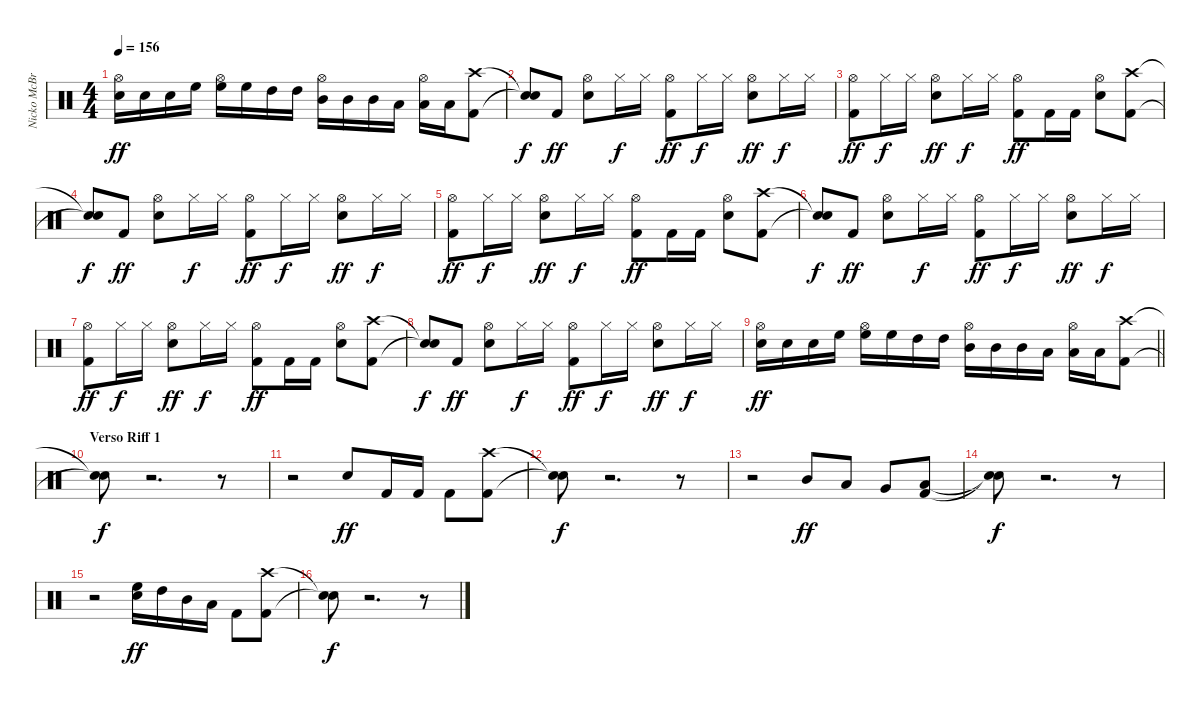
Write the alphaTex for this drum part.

\track ("Nicko McBrain" "Nicko McBr") {instrument percussion}
\staff {score}
\articulation defaults
\ts (4 4)
\tempo 156
\clef neutral
\ks c
("Snare (hit) 2" "Hi-Hat (open)").16{dy ff} "Snare (hit) 2".16 "Snare (hit) 2".16 "High Floor Tom (hit)".16 ("Hi-Hat (open)" "High Floor Tom (hit)").16 "High Floor Tom (hit)".16 "High Tom (hit)".16 "High Tom (hit)".16 ("Hi-Hat (open)" "Mid Tom (hit)").16 "Mid Tom (hit)".16 "Mid Tom (hit)".16 "Low Tom (hit)".16 ("Low Tom (hit)" "Hi-Hat (open)").16 "Low Tom (hit)".16 ("Kick (hit) 2" "Crash high (hit)").8 |
("Snare (hit)"{t} "Snare (hit)"{t}).8{dy f} "Kick (hit) 2".8{dy ff} ("Snare (hit) 2" "Hi-Hat (open)").8 "Hi-Hat (closed)".16{dy f} "Hi-Hat (closed)".16 ("Kick (hit) 2" "Hi-Hat (open)").8{dy ff} "Hi-Hat (closed)".16{dy f} "Hi-Hat (closed)".16 ("Snare (hit) 2" "Hi-Hat (open)").8{dy ff} "Hi-Hat (closed)".16{dy f} "Hi-Hat (closed)".16 |
("Kick (hit) 2" "Hi-Hat (open)").8{dy ff} "Hi-Hat (closed)".16{dy f} "Hi-Hat (closed)".16 ("Snare (hit) 2" "Hi-Hat (open)").8{dy ff} "Hi-Hat (closed)".16{dy f} "Hi-Hat (closed)".16 ("Kick (hit) 2" "Hi-Hat (open)").8{dy ff} "Kick (hit) 2".16 "Kick (hit) 2".16 ("Snare (hit) 2" "Hi-Hat (open)").8 ("Kick (hit) 2" "Crash high (hit)").8 |
("Snare (hit)"{t} "Snare (hit)"{t}).8{dy f} "Kick (hit) 2".8{dy ff} ("Snare (hit) 2" "Hi-Hat (open)").8 "Hi-Hat (closed)".16{dy f} "Hi-Hat (closed)".16 ("Kick (hit) 2" "Hi-Hat (open)").8{dy ff} "Hi-Hat (closed)".16{dy f} "Hi-Hat (closed)".16 ("Snare (hit) 2" "Hi-Hat (open)").8{dy ff} "Hi-Hat (closed)".16{dy f} "Hi-Hat (closed)".16 |
("Kick (hit) 2" "Hi-Hat (open)").8{dy ff} "Hi-Hat (closed)".16{dy f} "Hi-Hat (closed)".16 ("Snare (hit) 2" "Hi-Hat (open)").8{dy ff} "Hi-Hat (closed)".16{dy f} "Hi-Hat (closed)".16 ("Kick (hit) 2" "Hi-Hat (open)").8{dy ff} "Kick (hit) 2".16 "Kick (hit) 2".16 ("Snare (hit) 2" "Hi-Hat (open)").8 ("Kick (hit) 2" "Crash high (hit)").8 |
("Snare (hit)"{t} "Snare (hit)"{t}).8{dy f} "Kick (hit) 2".8{dy ff} ("Snare (hit) 2" "Hi-Hat (open)").8 "Hi-Hat (closed)".16{dy f} "Hi-Hat (closed)".16 ("Kick (hit) 2" "Hi-Hat (open)").8{dy ff} "Hi-Hat (closed)".16{dy f} "Hi-Hat (closed)".16 ("Snare (hit) 2" "Hi-Hat (open)").8{dy ff} "Hi-Hat (closed)".16{dy f} "Hi-Hat (closed)".16 |
("Kick (hit) 2" "Hi-Hat (open)").8{dy ff} "Hi-Hat (closed)".16{dy f} "Hi-Hat (closed)".16 ("Snare (hit) 2" "Hi-Hat (open)").8{dy ff} "Hi-Hat (closed)".16{dy f} "Hi-Hat (closed)".16 ("Kick (hit) 2" "Hi-Hat (open)").8{dy ff} "Kick (hit) 2".16 "Kick (hit) 2".16 ("Snare (hit) 2" "Hi-Hat (open)").8 ("Kick (hit) 2" "Crash high (hit)").8 |
("Snare (hit)"{t} "Snare (hit)"{t}).8{dy f} "Kick (hit) 2".8{dy ff} ("Snare (hit) 2" "Hi-Hat (open)").8 "Hi-Hat (closed)".16{dy f} "Hi-Hat (closed)".16 ("Kick (hit) 2" "Hi-Hat (open)").8{dy ff} "Hi-Hat (closed)".16{dy f} "Hi-Hat (closed)".16 ("Snare (hit) 2" "Hi-Hat (open)").8{dy ff} "Hi-Hat (closed)".16{dy f} "Hi-Hat (closed)".16 |
\barLineRight lightlight
("Snare (hit) 2" "Hi-Hat (open)").16{dy ff} "Snare (hit) 2".16 "Snare (hit) 2".16 "High Floor Tom (hit)".16 ("Hi-Hat (open)" "High Floor Tom (hit)").16 "High Floor Tom (hit)".16 "High Tom (hit)".16 "High Tom (hit)".16 ("Hi-Hat (open)" "Mid Tom (hit)").16 "Mid Tom (hit)".16 "Mid Tom (hit)".16 "Low Tom (hit)".16 ("Low Tom (hit)" "Hi-Hat (open)").16 "Low Tom (hit)".16 ("Kick (hit) 2" "Crash high (hit)").8 |
\section ("" "Verso Riff 1")
("Snare (hit)"{t} "Snare (hit)"{t}).8{dy f} r.2{d} r.8 |
r.2 "Snare (hit) 2".8{dy ff} "Kick (hit) 2".16 "Kick (hit) 2".16 "Kick (hit) 2".8 ("Kick (hit) 2" "Crash high (hit)").8 |
("Snare (hit)"{t} "Snare (hit)"{t}).8{dy f} r.2{d} r.8 |
r.2 "Mid Tom (hit)".8{dy ff} "Low Tom (hit)".8 "Very Low Tom (hit)".8 ("Kick (hit) 2" "Low Floor Tom (hit)").8 |
("Snare (hit)"{t} "Snare (hit)"{t}).8{dy f} r.2{d} r.8 |
r.2 ("Snare (hit) 2" "High Floor Tom (hit)").16{dy ff} "High Tom (hit)".16 "Mid Tom (hit)".16 "Low Tom (hit)".16 "Kick (hit) 2".8 ("Kick (hit) 2" "Crash high (hit)").8 |
("Snare (hit)"{t} "Snare (hit)"{t}).8{dy f} r.2{d} r.8
